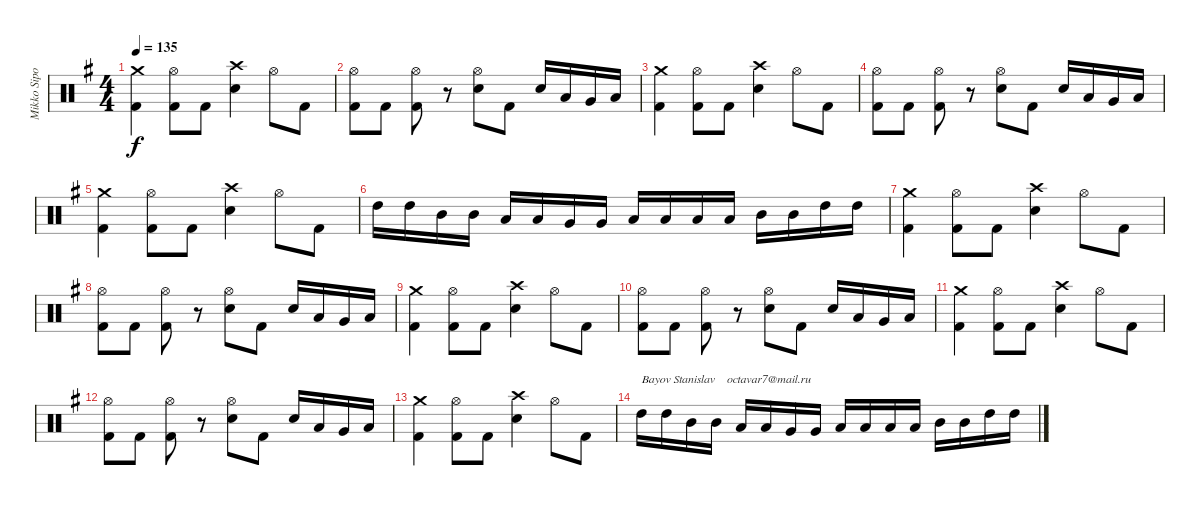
\track ("Mikko Sipola (drums)" "Mikko Sipo") {instrument percussion}
\staff {score}
\articulation defaults
\ts (4 4)
\tempo 135
\clef neutral
\ks eminor
("Crash medium (hit)" "Kick (hit) 2").4{dy f} ("Hi-Hat (open)" "Kick (hit) 2").8 "Kick (hit) 2".8 ("Electric Snare (hit)" "Crash high (hit)").4 "Hi-Hat (open)".8 "Kick (hit) 2".8 |
("Hi-Hat (open)" "Kick (hit) 2").8 "Kick (hit) 2".8 ("Hi-Hat (open)" "Kick (hit) 2").8 r.8 ("Electric Snare (hit)" "Hi-Hat (open)").8 "Kick (hit) 2".8 "Electric Snare (hit)".16 "Low Tom (hit)".16 "Very Low Tom (hit)".16 "Low Floor Tom (hit)".16 |
("Crash medium (hit)" "Kick (hit) 2").4 ("Hi-Hat (open)" "Kick (hit) 2").8 "Kick (hit) 2".8 ("Electric Snare (hit)" "Crash high (hit)").4 "Hi-Hat (open)".8 "Kick (hit) 2".8 |
("Hi-Hat (open)" "Kick (hit) 2").8 "Kick (hit) 2".8 ("Hi-Hat (open)" "Kick (hit) 2").8 r.8 ("Electric Snare (hit)" "Hi-Hat (open)").8 "Kick (hit) 2".8 "Electric Snare (hit)".16 "Low Tom (hit)".16 "Very Low Tom (hit)".16 "Low Floor Tom (hit)".16 |
("Crash medium (hit)" "Kick (hit) 2").4 ("Hi-Hat (open)" "Kick (hit) 2").8 "Kick (hit) 2".8 ("Electric Snare (hit)" "Crash high (hit)").4 "Hi-Hat (open)".8 "Kick (hit) 2".8 |
"High Tom (hit)".16 "High Tom (hit)".16 "Mid Tom (hit)".16 "Mid Tom (hit)".16 "Low Tom (hit)".16 "Low Tom (hit)".16 "Very Low Tom (hit)".16 "Very Low Tom (hit)".16 "Low Floor Tom (hit)".16 "Low Floor Tom (hit)".16 "Low Tom (hit)".16 "Low Tom (hit)".16 "Mid Tom (hit)".16 "Mid Tom (hit)".16 "High Tom (hit)".16 "High Tom (hit)".16 |
("Crash medium (hit)" "Kick (hit) 2").4 ("Hi-Hat (open)" "Kick (hit) 2").8 "Kick (hit) 2".8 ("Electric Snare (hit)" "Crash high (hit)").4 "Hi-Hat (open)".8 "Kick (hit) 2".8 |
("Hi-Hat (open)" "Kick (hit) 2").8 "Kick (hit) 2".8 ("Hi-Hat (open)" "Kick (hit) 2").8 r.8 ("Electric Snare (hit)" "Hi-Hat (open)").8 "Kick (hit) 2".8 "Electric Snare (hit)".16 "Low Tom (hit)".16 "Very Low Tom (hit)".16 "Low Floor Tom (hit)".16 |
("Crash medium (hit)" "Kick (hit) 2").4 ("Hi-Hat (open)" "Kick (hit) 2").8 "Kick (hit) 2".8 ("Electric Snare (hit)" "Crash high (hit)").4 "Hi-Hat (open)".8 "Kick (hit) 2".8 |
("Hi-Hat (open)" "Kick (hit) 2").8 "Kick (hit) 2".8 ("Hi-Hat (open)" "Kick (hit) 2").8 r.8 ("Electric Snare (hit)" "Hi-Hat (open)").8 "Kick (hit) 2".8 "Electric Snare (hit)".16 "Low Tom (hit)".16 "Very Low Tom (hit)".16 "Low Floor Tom (hit)".16 |
("Crash medium (hit)" "Kick (hit) 2").4 ("Hi-Hat (open)" "Kick (hit) 2").8 "Kick (hit) 2".8 ("Electric Snare (hit)" "Crash high (hit)").4 "Hi-Hat (open)".8 "Kick (hit) 2".8 |
("Hi-Hat (open)" "Kick (hit) 2").8 "Kick (hit) 2".8 ("Hi-Hat (open)" "Kick (hit) 2").8 r.8 ("Electric Snare (hit)" "Hi-Hat (open)").8 "Kick (hit) 2".8 "Electric Snare (hit)".16 "Low Tom (hit)".16 "Very Low Tom (hit)".16 "Low Floor Tom (hit)".16 |
("Crash medium (hit)" "Kick (hit) 2").4 ("Hi-Hat (open)" "Kick (hit) 2").8 "Kick (hit) 2".8 ("Electric Snare (hit)" "Crash high (hit)").4 "Hi-Hat (open)".8 "Kick (hit) 2".8 |
"High Tom (hit)".16{txt "Bayov Stanislav    octavar7@mail.ru"} "High Tom (hit)".16 "Mid Tom (hit)".16 "Mid Tom (hit)".16 "Low Tom (hit)".16 "Low Tom (hit)".16 "Very Low Tom (hit)".16 "Very Low Tom (hit)".16 "Low Floor Tom (hit)".16 "Low Floor Tom (hit)".16 "Low Tom (hit)".16 "Low Tom (hit)".16 "Mid Tom (hit)".16 "Mid Tom (hit)".16 "High Tom (hit)".16 "High Tom (hit)".16
